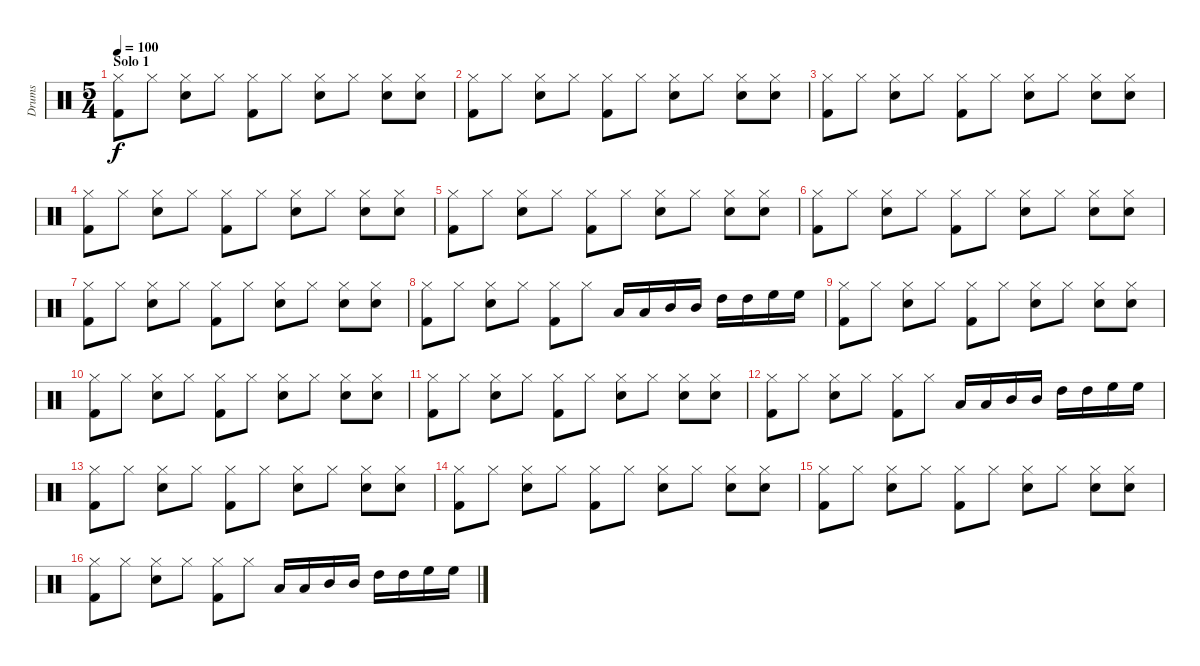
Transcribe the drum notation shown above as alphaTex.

\track ("Drums" "Drums") {instrument percussion}
\staff {score}
\articulation defaults
\ts (5 4)
\section ("" "Solo 1")
\tempo 100
\clef neutral
\ks c
("Kick (hit) 2" "Hi-Hat (closed)").8{dy f} "Hi-Hat (closed)".8 ("Snare (hit) 2" "Hi-Hat (closed)").8 "Hi-Hat (closed)".8 ("Kick (hit) 2" "Hi-Hat (closed)").8 "Hi-Hat (closed)".8 ("Snare (hit) 2" "Hi-Hat (closed)").8 "Hi-Hat (closed)".8 ("Snare (hit) 2" "Hi-Hat (closed)").8 ("Snare (hit) 2" "Hi-Hat (closed)").8 |
("Kick (hit) 2" "Hi-Hat (closed)").8 "Hi-Hat (closed)".8 ("Snare (hit) 2" "Hi-Hat (closed)").8 "Hi-Hat (closed)".8 ("Kick (hit) 2" "Hi-Hat (closed)").8 "Hi-Hat (closed)".8 ("Snare (hit) 2" "Hi-Hat (closed)").8 "Hi-Hat (closed)".8 ("Snare (hit) 2" "Hi-Hat (closed)").8 ("Snare (hit) 2" "Hi-Hat (closed)").8 |
("Kick (hit) 2" "Hi-Hat (closed)").8 "Hi-Hat (closed)".8 ("Snare (hit) 2" "Hi-Hat (closed)").8 "Hi-Hat (closed)".8 ("Kick (hit) 2" "Hi-Hat (closed)").8 "Hi-Hat (closed)".8 ("Snare (hit) 2" "Hi-Hat (closed)").8 "Hi-Hat (closed)".8 ("Snare (hit) 2" "Hi-Hat (closed)").8 ("Snare (hit) 2" "Hi-Hat (closed)").8 |
("Kick (hit) 2" "Hi-Hat (closed)").8 "Hi-Hat (closed)".8 ("Snare (hit) 2" "Hi-Hat (closed)").8 "Hi-Hat (closed)".8 ("Kick (hit) 2" "Hi-Hat (closed)").8 "Hi-Hat (closed)".8 ("Snare (hit) 2" "Hi-Hat (closed)").8 "Hi-Hat (closed)".8 ("Snare (hit) 2" "Hi-Hat (closed)").8 ("Snare (hit) 2" "Hi-Hat (closed)").8 |
("Kick (hit) 2" "Hi-Hat (closed)").8 "Hi-Hat (closed)".8 ("Snare (hit) 2" "Hi-Hat (closed)").8 "Hi-Hat (closed)".8 ("Kick (hit) 2" "Hi-Hat (closed)").8 "Hi-Hat (closed)".8 ("Snare (hit) 2" "Hi-Hat (closed)").8 "Hi-Hat (closed)".8 ("Snare (hit) 2" "Hi-Hat (closed)").8 ("Snare (hit) 2" "Hi-Hat (closed)").8 |
("Kick (hit) 2" "Hi-Hat (closed)").8 "Hi-Hat (closed)".8 ("Snare (hit) 2" "Hi-Hat (closed)").8 "Hi-Hat (closed)".8 ("Kick (hit) 2" "Hi-Hat (closed)").8 "Hi-Hat (closed)".8 ("Snare (hit) 2" "Hi-Hat (closed)").8 "Hi-Hat (closed)".8 ("Snare (hit) 2" "Hi-Hat (closed)").8 ("Snare (hit) 2" "Hi-Hat (closed)").8 |
("Kick (hit) 2" "Hi-Hat (closed)").8 "Hi-Hat (closed)".8 ("Snare (hit) 2" "Hi-Hat (closed)").8 "Hi-Hat (closed)".8 ("Kick (hit) 2" "Hi-Hat (closed)").8 "Hi-Hat (closed)".8 ("Snare (hit) 2" "Hi-Hat (closed)").8 "Hi-Hat (closed)".8 ("Snare (hit) 2" "Hi-Hat (closed)").8 ("Snare (hit) 2" "Hi-Hat (closed)").8 |
("Kick (hit) 2" "Hi-Hat (closed)").8 "Hi-Hat (closed)".8 ("Snare (hit) 2" "Hi-Hat (closed)").8 "Hi-Hat (closed)".8 ("Kick (hit) 2" "Hi-Hat (closed)").8 "Hi-Hat (closed)".8 "Low Tom (hit)".16 "Low Tom (hit)".16 "Mid Tom (hit)".16 "Mid Tom (hit)".16 "High Tom (hit)".16 "High Tom (hit)".16 "High Floor Tom (hit)".16 "High Floor Tom (hit)".16 |
("Kick (hit) 2" "Hi-Hat (closed)").8 "Hi-Hat (closed)".8 ("Snare (hit) 2" "Hi-Hat (closed)").8 "Hi-Hat (closed)".8 ("Kick (hit) 2" "Hi-Hat (closed)").8 "Hi-Hat (closed)".8 ("Snare (hit) 2" "Hi-Hat (closed)").8 "Hi-Hat (closed)".8 ("Snare (hit) 2" "Hi-Hat (closed)").8 ("Snare (hit) 2" "Hi-Hat (closed)").8 |
("Kick (hit) 2" "Hi-Hat (closed)").8 "Hi-Hat (closed)".8 ("Snare (hit) 2" "Hi-Hat (closed)").8 "Hi-Hat (closed)".8 ("Kick (hit) 2" "Hi-Hat (closed)").8 "Hi-Hat (closed)".8 ("Snare (hit) 2" "Hi-Hat (closed)").8 "Hi-Hat (closed)".8 ("Snare (hit) 2" "Hi-Hat (closed)").8 ("Snare (hit) 2" "Hi-Hat (closed)").8 |
("Kick (hit) 2" "Hi-Hat (closed)").8 "Hi-Hat (closed)".8 ("Snare (hit) 2" "Hi-Hat (closed)").8 "Hi-Hat (closed)".8 ("Kick (hit) 2" "Hi-Hat (closed)").8 "Hi-Hat (closed)".8 ("Snare (hit) 2" "Hi-Hat (closed)").8 "Hi-Hat (closed)".8 ("Snare (hit) 2" "Hi-Hat (closed)").8 ("Snare (hit) 2" "Hi-Hat (closed)").8 |
("Kick (hit) 2" "Hi-Hat (closed)").8 "Hi-Hat (closed)".8 ("Snare (hit) 2" "Hi-Hat (closed)").8 "Hi-Hat (closed)".8 ("Kick (hit) 2" "Hi-Hat (closed)").8 "Hi-Hat (closed)".8 "Low Tom (hit)".16 "Low Tom (hit)".16 "Mid Tom (hit)".16 "Mid Tom (hit)".16 "High Tom (hit)".16 "High Tom (hit)".16 "High Floor Tom (hit)".16 "High Floor Tom (hit)".16 |
("Kick (hit) 2" "Hi-Hat (closed)").8 "Hi-Hat (closed)".8 ("Snare (hit) 2" "Hi-Hat (closed)").8 "Hi-Hat (closed)".8 ("Kick (hit) 2" "Hi-Hat (closed)").8 "Hi-Hat (closed)".8 ("Snare (hit) 2" "Hi-Hat (closed)").8 "Hi-Hat (closed)".8 ("Snare (hit) 2" "Hi-Hat (closed)").8 ("Snare (hit) 2" "Hi-Hat (closed)").8 |
("Kick (hit) 2" "Hi-Hat (closed)").8 "Hi-Hat (closed)".8 ("Snare (hit) 2" "Hi-Hat (closed)").8 "Hi-Hat (closed)".8 ("Kick (hit) 2" "Hi-Hat (closed)").8 "Hi-Hat (closed)".8 ("Snare (hit) 2" "Hi-Hat (closed)").8 "Hi-Hat (closed)".8 ("Snare (hit) 2" "Hi-Hat (closed)").8 ("Snare (hit) 2" "Hi-Hat (closed)").8 |
("Kick (hit) 2" "Hi-Hat (closed)").8 "Hi-Hat (closed)".8 ("Snare (hit) 2" "Hi-Hat (closed)").8 "Hi-Hat (closed)".8 ("Kick (hit) 2" "Hi-Hat (closed)").8 "Hi-Hat (closed)".8 ("Snare (hit) 2" "Hi-Hat (closed)").8 "Hi-Hat (closed)".8 ("Snare (hit) 2" "Hi-Hat (closed)").8 ("Snare (hit) 2" "Hi-Hat (closed)").8 |
("Kick (hit) 2" "Hi-Hat (closed)").8 "Hi-Hat (closed)".8 ("Snare (hit) 2" "Hi-Hat (closed)").8 "Hi-Hat (closed)".8 ("Kick (hit) 2" "Hi-Hat (closed)").8 "Hi-Hat (closed)".8 "Low Tom (hit)".16 "Low Tom (hit)".16 "Mid Tom (hit)".16 "Mid Tom (hit)".16 "High Tom (hit)".16 "High Tom (hit)".16 "High Floor Tom (hit)".16 "High Floor Tom (hit)".16
